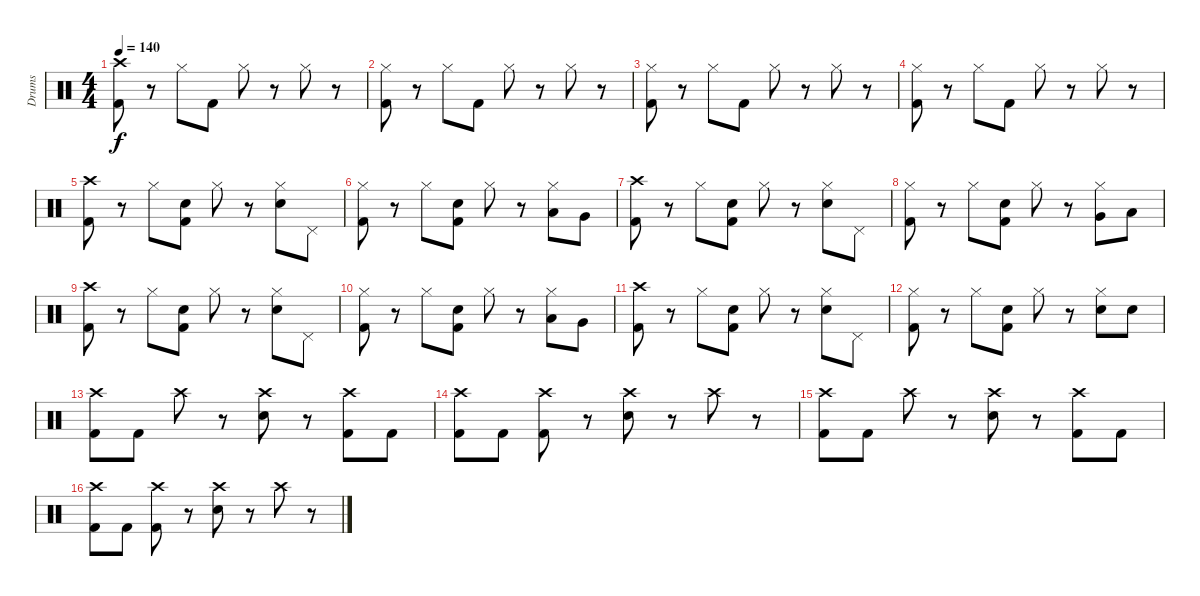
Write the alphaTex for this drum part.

\track ("Drums" "Drums") {instrument percussion}
\staff {score}
\articulation defaults
\ts (4 4)
\tempo 140
\clef neutral
\ks c
("Crash high (hit)" "Kick (hit) 2").8{dy f} r.8 "Hi-Hat (closed)".8 "Kick (hit) 2".8 "Hi-Hat (closed)".8 r.8 "Hi-Hat (closed)".8 r.8 |
("Hi-Hat (closed)" "Kick (hit) 2").8 r.8 "Hi-Hat (closed)".8 "Kick (hit) 2".8 "Hi-Hat (closed)".8 r.8 "Hi-Hat (closed)".8 r.8 |
("Hi-Hat (closed)" "Kick (hit) 2").8 r.8 "Hi-Hat (closed)".8 "Kick (hit) 2".8 "Hi-Hat (closed)".8 r.8 "Hi-Hat (closed)".8 r.8 |
("Hi-Hat (closed)" "Kick (hit) 2").8 r.8 "Hi-Hat (closed)".8 "Kick (hit) 2".8 "Hi-Hat (closed)".8 r.8 "Hi-Hat (closed)".8 r.8 |
("Crash high (hit)" "Kick (hit) 2").8 r.8 "Hi-Hat (closed)".8 ("Electric Snare (hit)" "Kick (hit) 2").8 "Hi-Hat (closed)".8 r.8 ("Hi-Hat (closed)" "Electric Snare (hit)").8 "Pedal Hi-Hat (hit)".8 |
("Hi-Hat (closed)" "Kick (hit) 2").8 r.8 "Hi-Hat (closed)".8 ("Electric Snare (hit)" "Kick (hit) 2").8 "Hi-Hat (closed)".8 r.8 ("Hi-Hat (closed)" "Low Tom (hit)").8 "Very Low Tom (hit)".8 |
("Crash high (hit)" "Kick (hit) 2").8 r.8 "Hi-Hat (closed)".8 ("Electric Snare (hit)" "Kick (hit) 2").8 "Hi-Hat (closed)".8 r.8 ("Hi-Hat (closed)" "Electric Snare (hit)").8 "Pedal Hi-Hat (hit)".8 |
("Hi-Hat (closed)" "Kick (hit) 2").8 r.8 "Hi-Hat (closed)".8 ("Electric Snare (hit)" "Kick (hit) 2").8 "Hi-Hat (closed)".8 r.8 ("Hi-Hat (closed)" "Very Low Tom (hit)").8 "Low Floor Tom (hit)".8 |
("Crash high (hit)" "Kick (hit) 2").8 r.8 "Hi-Hat (closed)".8 ("Electric Snare (hit)" "Kick (hit) 2").8 "Hi-Hat (closed)".8 r.8 ("Hi-Hat (closed)" "Electric Snare (hit)").8 "Pedal Hi-Hat (hit)".8 |
("Hi-Hat (closed)" "Kick (hit) 2").8 r.8 "Hi-Hat (closed)".8 ("Electric Snare (hit)" "Kick (hit) 2").8 "Hi-Hat (closed)".8 r.8 ("Hi-Hat (closed)" "Low Tom (hit)").8 "Very Low Tom (hit)".8 |
("Crash high (hit)" "Kick (hit) 2").8 r.8 "Hi-Hat (closed)".8 ("Electric Snare (hit)" "Kick (hit) 2").8 "Hi-Hat (closed)".8 r.8 ("Hi-Hat (closed)" "Electric Snare (hit)").8 "Pedal Hi-Hat (hit)".8 |
("Hi-Hat (closed)" "Kick (hit) 2").8 r.8 "Hi-Hat (closed)".8 ("Electric Snare (hit)" "Kick (hit) 2").8 "Hi-Hat (closed)".8 r.8 ("Hi-Hat (closed)" "Electric Snare (hit)").8 "Electric Snare (hit)".8 |
("Crash high (hit)" "Kick (hit) 2").8 "Kick (hit) 2".8 "Crash high (hit)".8 r.8 ("Crash high (hit)" "Electric Snare (hit)").8 r.8 ("Crash high (hit)" "Kick (hit) 2").8 "Kick (hit) 2".8 |
("Crash high (hit)" "Kick (hit) 2").8 "Kick (hit) 2".8 ("Crash high (hit)" "Kick (hit) 2").8 r.8 ("Crash high (hit)" "Electric Snare (hit)").8 r.8 "Crash high (hit)".8 r.8 |
("Crash high (hit)" "Kick (hit) 2").8 "Kick (hit) 2".8 "Crash high (hit)".8 r.8 ("Crash high (hit)" "Electric Snare (hit)").8 r.8 ("Crash high (hit)" "Kick (hit) 2").8 "Kick (hit) 2".8 |
("Crash high (hit)" "Kick (hit) 2").8 "Kick (hit) 2".8 ("Crash high (hit)" "Kick (hit) 2").8 r.8 ("Crash high (hit)" "Electric Snare (hit)").8 r.8 "Crash high (hit)".8 r.8
